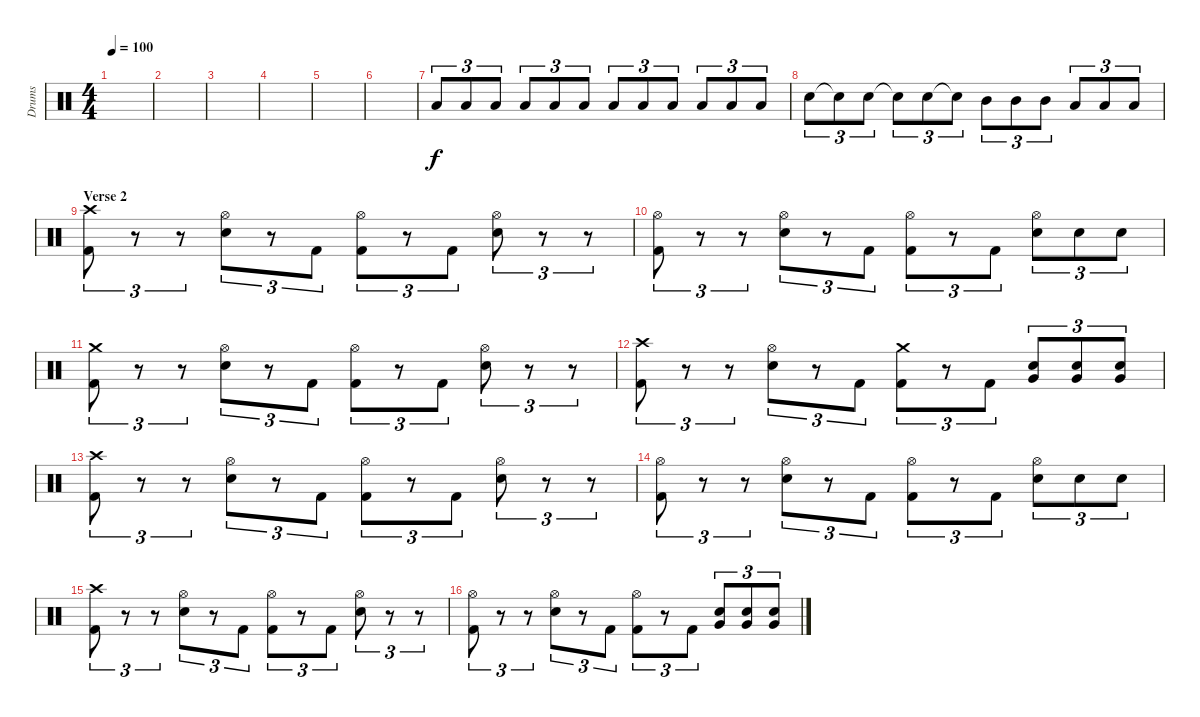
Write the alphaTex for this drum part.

\track ("Drums" "Drums") {instrument percussion}
\staff {score}
\articulation defaults
\ts (4 4)
\tempo 100
\clef neutral
\ks c
|
|
|
|
|
|
"Low Tom (hit)".8{tu (3 2)} "Low Tom (hit)".8{tu (3 2)} "Low Tom (hit)".8{tu (3 2)} "Low Tom (hit)".8{tu (3 2)} "Low Tom (hit)".8{tu (3 2)} "Low Tom (hit)".8{tu (3 2)} "Low Tom (hit)".8{tu (3 2)} "Low Tom (hit)".8{tu (3 2)} "Low Tom (hit)".8{tu (3 2)} "Low Tom (hit)".8{tu (3 2)} "Low Tom (hit)".8{tu (3 2)} "Low Tom (hit)".8{tu (3 2)} |
"Snare (hit) 2".8{tu (3 2)} "Snare (hit)"{t}.8{tu (3 2)} "Snare (hit) 2".8{tu (3 2)} "Snare (hit)"{t}.8{tu (3 2)} "Snare (hit) 2".8{tu (3 2)} "Snare (hit)"{t}.8{tu (3 2)} "Mid Tom (hit)".8{tu (3 2)} "Mid Tom (hit)".8{tu (3 2)} "Mid Tom (hit)".8{tu (3 2)} "Low Tom (hit)".8{tu (3 2)} "Low Tom (hit)".8{tu (3 2)} "Low Tom (hit)".8{tu (3 2)} |
\section ("" "Verse 2")
("Crash high (hit)" "Kick (hit) 2").8{tu (3 2)} r.8{tu (3 2)} r.8{tu (3 2)} ("Hi-Hat (open)" "Electric Snare (hit)").8{tu (3 2)} r.8{tu (3 2)} "Kick (hit) 2".8{tu (3 2)} ("Hi-Hat (open)" "Kick (hit) 2").8{tu (3 2)} r.8{tu (3 2)} "Kick (hit) 2".8{tu (3 2)} ("Hi-Hat (open)" "Electric Snare (hit)").8{tu (3 2)} r.8{tu (3 2)} r.8{tu (3 2)} |
("Hi-Hat (open)" "Kick (hit) 2").8{tu (3 2)} r.8{tu (3 2)} r.8{tu (3 2)} ("Hi-Hat (open)" "Electric Snare (hit)").8{tu (3 2)} r.8{tu (3 2)} "Kick (hit) 2".8{tu (3 2)} ("Hi-Hat (open)" "Kick (hit) 2").8{tu (3 2)} r.8{tu (3 2)} "Kick (hit) 2".8{tu (3 2)} ("Hi-Hat (open)" "Snare (hit) 2").8{tu (3 2)} "Snare (hit) 2".8{tu (3 2)} "Snare (hit) 2".8{tu (3 2)} |
("Crash medium (hit)" "Kick (hit) 2").8{tu (3 2)} r.8{tu (3 2)} r.8{tu (3 2)} ("Hi-Hat (open)" "Electric Snare (hit)").8{tu (3 2)} r.8{tu (3 2)} "Kick (hit) 2".8{tu (3 2)} ("Hi-Hat (open)" "Kick (hit) 2").8{tu (3 2)} r.8{tu (3 2)} "Kick (hit) 2".8{tu (3 2)} ("Hi-Hat (open)" "Electric Snare (hit)").8{tu (3 2)} r.8{tu (3 2)} r.8{tu (3 2)} |
("Crash high (hit)" "Kick (hit) 2").8{tu (3 2)} r.8{tu (3 2)} r.8{tu (3 2)} ("Hi-Hat (open)" "Electric Snare (hit)").8{tu (3 2)} r.8{tu (3 2)} "Kick (hit) 2".8{tu (3 2)} ("Crash medium (hit)" "Kick (hit) 2").8{tu (3 2)} r.8{tu (3 2)} "Kick (hit) 2".8{tu (3 2)} ("Very Low Tom (hit)" "Snare (hit) 2").8{tu (3 2)} ("Very Low Tom (hit)" "Snare (hit) 2").8{tu (3 2)} ("Very Low Tom (hit)" "Snare (hit) 2").8{tu (3 2)} |
("Crash high (hit)" "Kick (hit) 2").8{tu (3 2)} r.8{tu (3 2)} r.8{tu (3 2)} ("Hi-Hat (open)" "Electric Snare (hit)").8{tu (3 2)} r.8{tu (3 2)} "Kick (hit) 2".8{tu (3 2)} ("Hi-Hat (open)" "Kick (hit) 2").8{tu (3 2)} r.8{tu (3 2)} "Kick (hit) 2".8{tu (3 2)} ("Hi-Hat (open)" "Electric Snare (hit)").8{tu (3 2)} r.8{tu (3 2)} r.8{tu (3 2)} |
("Hi-Hat (open)" "Kick (hit) 2").8{tu (3 2)} r.8{tu (3 2)} r.8{tu (3 2)} ("Hi-Hat (open)" "Electric Snare (hit)").8{tu (3 2)} r.8{tu (3 2)} "Kick (hit) 2".8{tu (3 2)} ("Hi-Hat (open)" "Kick (hit) 2").8{tu (3 2)} r.8{tu (3 2)} "Kick (hit) 2".8{tu (3 2)} ("Hi-Hat (open)" "Snare (hit) 2").8{tu (3 2)} "Snare (hit) 2".8{tu (3 2)} "Snare (hit) 2".8{tu (3 2)} |
("Crash high (hit)" "Kick (hit) 2").8{tu (3 2)} r.8{tu (3 2)} r.8{tu (3 2)} ("Hi-Hat (open)" "Electric Snare (hit)").8{tu (3 2)} r.8{tu (3 2)} "Kick (hit) 2".8{tu (3 2)} ("Hi-Hat (open)" "Kick (hit) 2").8{tu (3 2)} r.8{tu (3 2)} "Kick (hit) 2".8{tu (3 2)} ("Hi-Hat (open)" "Electric Snare (hit)").8{tu (3 2)} r.8{tu (3 2)} r.8{tu (3 2)} |
("Hi-Hat (open)" "Kick (hit) 2").8{tu (3 2)} r.8{tu (3 2)} r.8{tu (3 2)} ("Hi-Hat (open)" "Electric Snare (hit)").8{tu (3 2)} r.8{tu (3 2)} "Kick (hit) 2".8{tu (3 2)} ("Hi-Hat (open)" "Kick (hit) 2").8{tu (3 2)} r.8{tu (3 2)} "Kick (hit) 2".8{tu (3 2)} ("Very Low Tom (hit)" "Snare (hit) 2").8{tu (3 2)} ("Very Low Tom (hit)" "Snare (hit) 2").8{tu (3 2)} ("Very Low Tom (hit)" "Snare (hit) 2").8{tu (3 2)}
